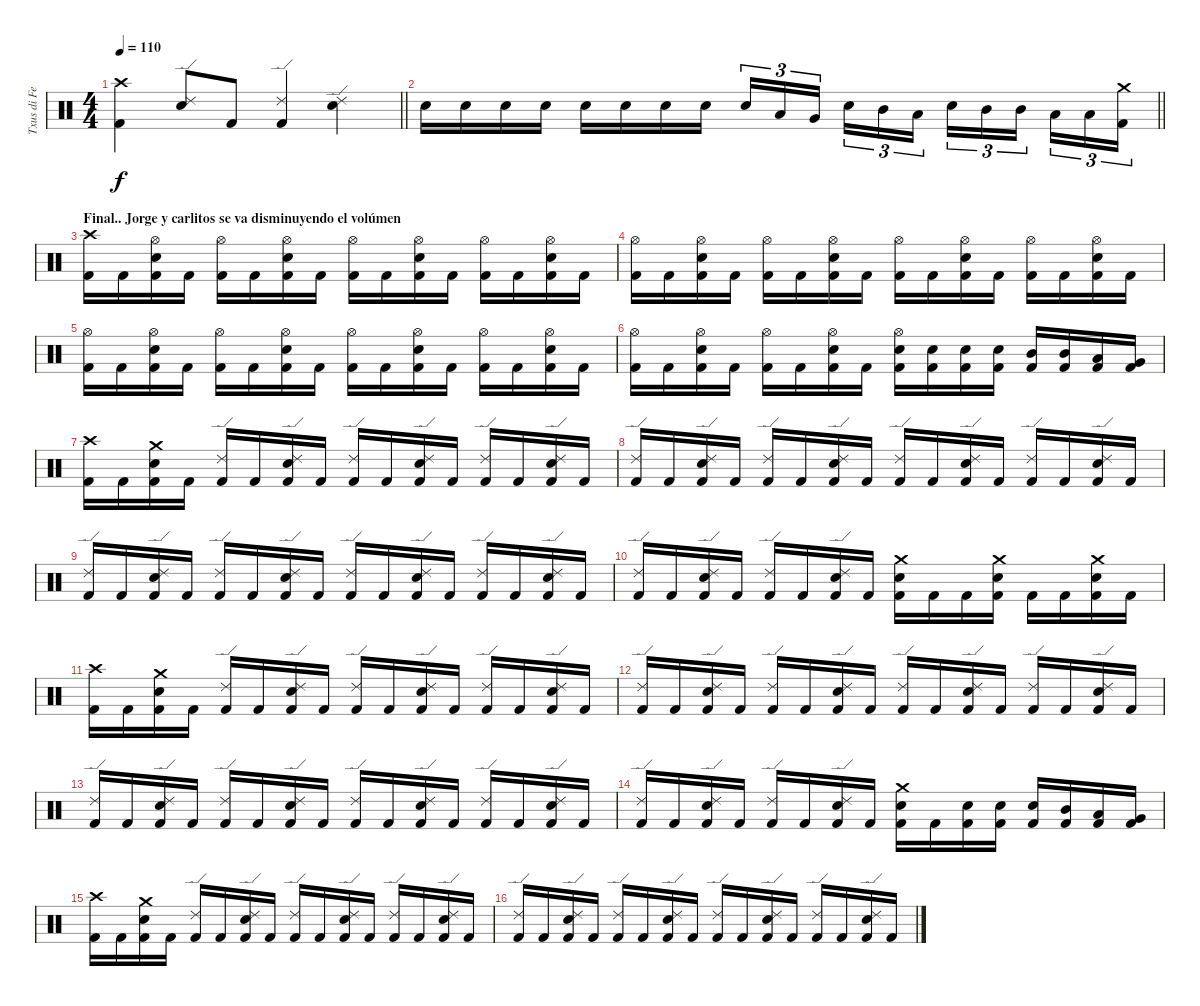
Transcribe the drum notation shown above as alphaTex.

\track ("Txus di Fellatio" "Txus di Fe") {instrument percussion}
\staff {score}
\articulation defaults
\ts (4 4)
\tempo 110
\clef neutral
\barLineRight lightlight
\ks c
("Kick (hit) 2" "Crash high (hit)").4{dy f} ("Ride (edge) 2" "Electric Snare (hit)").8 "Kick (hit) 2".8 ("Kick (hit) 2" "Ride (edge) 2").4 ("Ride (edge) 2" "Electric Snare (hit)").4 |
\barLineRight lightlight "Electric Snare (hit)".16 "Electric Snare (hit)".16 "Electric Snare (hit)".16 "Electric Snare (hit)".16 "Electric Snare (hit)".16 "Electric Snare (hit)".16 "Electric Snare (hit)".16 "Electric Snare (hit)".16 "Electric Snare (hit)".16{tu (3 2)} "Low Tom (hit)".16{tu (3 2)} "Very Low Tom (hit)".16{tu (3 2) beam splitsecondary} "Electric Snare (hit)".16{tu (3 2)} "Mid Tom (hit)".16{tu (3 2)} "Low Tom (hit)".16{tu (3 2)} "Electric Snare (hit)".16{tu (3 2)} "Mid Tom (hit)".16{tu (3 2)} "Mid Tom (hit)".16{tu (3 2) beam splitsecondary} "Low Tom (hit)".16{tu (3 2)} "Low Tom (hit)".16{tu (3 2)}
("Kick (hit) 2" "Crash medium (hit)").16{tu (3 2)} |
\section ("" "Final.. Jorge y carlitos se va disminuyendo el volúmen")
("Kick (hit) 2" "Crash high (hit)").16 "Kick (hit) 2".16 ("Kick (hit) 2" "Hi-Hat (open)" "Electric Snare (hit)").16 "Kick (hit) 2".16 ("Kick (hit) 2" "Hi-Hat (open)").16 "Kick (hit) 2".16 ("Kick (hit) 2" "Hi-Hat (open)" "Electric Snare (hit)").16 "Kick (hit) 2".16 ("Kick (hit) 2" "Hi-Hat (open)").16 "Kick (hit) 2".16 ("Kick (hit) 2" "Hi-Hat (open)" "Electric Snare (hit)").16 "Kick (hit) 2".16 ("Kick (hit) 2" "Hi-Hat (open)").16 "Kick (hit) 2".16 ("Kick (hit) 2" "Hi-Hat (open)" "Electric Snare (hit)").16 "Kick (hit) 2".16 |
("Kick (hit) 2" "Hi-Hat (open)").16 "Kick (hit) 2".16 ("Kick (hit) 2" "Hi-Hat (open)" "Electric Snare (hit)").16 "Kick (hit) 2".16 ("Kick (hit) 2" "Hi-Hat (open)").16 "Kick (hit) 2".16 ("Kick (hit) 2" "Hi-Hat (open)" "Electric Snare (hit)").16 "Kick (hit) 2".16 ("Kick (hit) 2" "Hi-Hat (open)").16 "Kick (hit) 2".16 ("Kick (hit) 2" "Hi-Hat (open)" "Electric Snare (hit)").16 "Kick (hit) 2".16 ("Kick (hit) 2" "Hi-Hat (open)").16 "Kick (hit) 2".16 ("Kick (hit) 2" "Hi-Hat (open)" "Electric Snare (hit)").16 "Kick (hit) 2".16 |
("Kick (hit) 2" "Hi-Hat (open)").16 "Kick (hit) 2".16 ("Kick (hit) 2" "Hi-Hat (open)" "Electric Snare (hit)").16 "Kick (hit) 2".16 ("Kick (hit) 2" "Hi-Hat (open)").16 "Kick (hit) 2".16 ("Kick (hit) 2" "Hi-Hat (open)" "Electric Snare (hit)").16 "Kick (hit) 2".16 ("Kick (hit) 2" "Hi-Hat (open)").16 "Kick (hit) 2".16 ("Kick (hit) 2" "Hi-Hat (open)" "Electric Snare (hit)").16 "Kick (hit) 2".16 ("Kick (hit) 2" "Hi-Hat (open)").16 "Kick (hit) 2".16 ("Kick (hit) 2" "Hi-Hat (open)" "Electric Snare (hit)").16 "Kick (hit) 2".16 |
("Kick (hit) 2" "Hi-Hat (open)").16 "Kick (hit) 2".16 ("Kick (hit) 2" "Hi-Hat (open)" "Electric Snare (hit)").16 "Kick (hit) 2".16 ("Kick (hit) 2" "Hi-Hat (open)").16 "Kick (hit) 2".16 ("Kick (hit) 2" "Hi-Hat (open)" "Electric Snare (hit)").16 "Kick (hit) 2".16 ("Kick (hit) 2" "Hi-Hat (open)" "Electric Snare (hit)").16 ("Kick (hit) 2" "Electric Snare (hit)").16 ("Kick (hit) 2" "Electric Snare (hit)").16 ("Kick (hit) 2" "Electric Snare (hit)").16 ("Kick (hit) 2" "Mid Tom (hit)").16 ("Kick (hit) 2" "Mid Tom (hit)").16 ("Kick (hit) 2" "Low Tom (hit)").16 ("Kick (hit) 2" "Very Low Tom (hit)").16 |
("Kick (hit) 2" "Crash high (hit)").16 "Kick (hit) 2".16 ("Kick (hit) 2" "Crash medium (hit)" "Electric Snare (hit)").16 "Kick (hit) 2".16 ("Kick (hit) 2" "Ride (edge) 2").16 "Kick (hit) 2".16 ("Kick (hit) 2" "Ride (edge) 2" "Electric Snare (hit)").16 "Kick (hit) 2".16 ("Kick (hit) 2" "Ride (edge) 2").16 "Kick (hit) 2".16 ("Kick (hit) 2" "Ride (edge) 2" "Electric Snare (hit)").16 "Kick (hit) 2".16 ("Kick (hit) 2" "Ride (edge) 2").16 "Kick (hit) 2".16 ("Kick (hit) 2" "Ride (edge) 2" "Electric Snare (hit)").16 "Kick (hit) 2".16 |
("Kick (hit) 2" "Ride (edge) 2").16 "Kick (hit) 2".16 ("Kick (hit) 2" "Ride (edge) 2" "Electric Snare (hit)").16 "Kick (hit) 2".16 ("Kick (hit) 2" "Ride (edge) 2").16 "Kick (hit) 2".16 ("Kick (hit) 2" "Ride (edge) 2" "Electric Snare (hit)").16 "Kick (hit) 2".16 ("Kick (hit) 2" "Ride (edge) 2").16 "Kick (hit) 2".16 ("Kick (hit) 2" "Ride (edge) 2" "Electric Snare (hit)").16 "Kick (hit) 2".16 ("Kick (hit) 2" "Ride (edge) 2").16 "Kick (hit) 2".16 ("Kick (hit) 2" "Ride (edge) 2" "Electric Snare (hit)").16 "Kick (hit) 2".16 |
("Kick (hit) 2" "Ride (edge) 2").16 "Kick (hit) 2".16 ("Kick (hit) 2" "Ride (edge) 2" "Electric Snare (hit)").16 "Kick (hit) 2".16 ("Kick (hit) 2" "Ride (edge) 2").16 "Kick (hit) 2".16 ("Kick (hit) 2" "Ride (edge) 2" "Electric Snare (hit)").16 "Kick (hit) 2".16 ("Kick (hit) 2" "Ride (edge) 2").16 "Kick (hit) 2".16 ("Kick (hit) 2" "Ride (edge) 2" "Electric Snare (hit)").16 "Kick (hit) 2".16 ("Kick (hit) 2" "Ride (edge) 2").16 "Kick (hit) 2".16 ("Kick (hit) 2" "Ride (edge) 2" "Electric Snare (hit)").16 "Kick (hit) 2".16 |
("Kick (hit) 2" "Ride (edge) 2").16 "Kick (hit) 2".16 ("Kick (hit) 2" "Ride (edge) 2" "Electric Snare (hit)").16 "Kick (hit) 2".16 ("Kick (hit) 2" "Ride (edge) 2").16 "Kick (hit) 2".16 ("Kick (hit) 2" "Ride (edge) 2" "Electric Snare (hit)").16 "Kick (hit) 2".16 ("Kick (hit) 2" "Crash medium (hit)" "Electric Snare (hit)").16 "Kick (hit) 2".16 "Kick (hit) 2".16 ("Kick (hit) 2" "Crash medium (hit)" "Electric Snare (hit)").16 "Kick (hit) 2".16 "Kick (hit) 2".16 ("Kick (hit) 2" "Crash medium (hit)" "Electric Snare (hit)").16 "Kick (hit) 2".16 |
("Kick (hit) 2" "Crash high (hit)").16 "Kick (hit) 2".16 ("Kick (hit) 2" "Crash medium (hit)" "Electric Snare (hit)").16 "Kick (hit) 2".16 ("Kick (hit) 2" "Ride (edge) 2").16 "Kick (hit) 2".16 ("Kick (hit) 2" "Ride (edge) 2" "Electric Snare (hit)").16 "Kick (hit) 2".16 ("Kick (hit) 2" "Ride (edge) 2").16 "Kick (hit) 2".16 ("Kick (hit) 2" "Ride (edge) 2" "Electric Snare (hit)").16 "Kick (hit) 2".16 ("Kick (hit) 2" "Ride (edge) 2").16 "Kick (hit) 2".16 ("Kick (hit) 2" "Ride (edge) 2" "Electric Snare (hit)").16 "Kick (hit) 2".16 |
("Kick (hit) 2" "Ride (edge) 2").16 "Kick (hit) 2".16 ("Kick (hit) 2" "Ride (edge) 2" "Electric Snare (hit)").16 "Kick (hit) 2".16 ("Kick (hit) 2" "Ride (edge) 2").16 "Kick (hit) 2".16 ("Kick (hit) 2" "Ride (edge) 2" "Electric Snare (hit)").16 "Kick (hit) 2".16 ("Kick (hit) 2" "Ride (edge) 2").16 "Kick (hit) 2".16 ("Kick (hit) 2" "Ride (edge) 2" "Electric Snare (hit)").16 "Kick (hit) 2".16 ("Kick (hit) 2" "Ride (edge) 2").16 "Kick (hit) 2".16 ("Kick (hit) 2" "Ride (edge) 2" "Electric Snare (hit)").16 "Kick (hit) 2".16 |
("Kick (hit) 2" "Ride (edge) 2").16 "Kick (hit) 2".16 ("Kick (hit) 2" "Ride (edge) 2" "Electric Snare (hit)").16 "Kick (hit) 2".16 ("Kick (hit) 2" "Ride (edge) 2").16 "Kick (hit) 2".16 ("Kick (hit) 2" "Ride (edge) 2" "Electric Snare (hit)").16 "Kick (hit) 2".16 ("Kick (hit) 2" "Ride (edge) 2").16 "Kick (hit) 2".16 ("Kick (hit) 2" "Ride (edge) 2" "Electric Snare (hit)").16 "Kick (hit) 2".16 ("Kick (hit) 2" "Ride (edge) 2").16 "Kick (hit) 2".16 ("Kick (hit) 2" "Ride (edge) 2" "Electric Snare (hit)").16 "Kick (hit) 2".16 |
("Kick (hit) 2" "Ride (edge) 2").16 "Kick (hit) 2".16 ("Kick (hit) 2" "Ride (edge) 2" "Electric Snare (hit)").16 "Kick (hit) 2".16 ("Kick (hit) 2" "Ride (edge) 2").16 "Kick (hit) 2".16 ("Kick (hit) 2" "Ride (edge) 2" "Electric Snare (hit)").16 "Kick (hit) 2".16 ("Kick (hit) 2" "Crash medium (hit)" "Electric Snare (hit)").16 "Kick (hit) 2".16 ("Kick (hit) 2" "Electric Snare (hit)").16 ("Kick (hit) 2" "Electric Snare (hit)").16 ("Kick (hit) 2" "Electric Snare (hit)").16 ("Kick (hit) 2" "Mid Tom (hit)").16 ("Kick (hit) 2" "Low Tom (hit)").16 ("Kick (hit) 2" "Very Low Tom (hit)").16 |
("Kick (hit) 2" "Crash high (hit)").16 "Kick (hit) 2".16 ("Kick (hit) 2" "Crash medium (hit)" "Electric Snare (hit)").16 "Kick (hit) 2".16 ("Kick (hit) 2" "Ride (edge) 2").16 "Kick (hit) 2".16 ("Kick (hit) 2" "Ride (edge) 2" "Electric Snare (hit)").16 "Kick (hit) 2".16 ("Kick (hit) 2" "Ride (edge) 2").16 "Kick (hit) 2".16 ("Kick (hit) 2" "Ride (edge) 2" "Electric Snare (hit)").16 "Kick (hit) 2".16 ("Kick (hit) 2" "Ride (edge) 2").16 "Kick (hit) 2".16 ("Kick (hit) 2" "Ride (edge) 2" "Electric Snare (hit)").16 "Kick (hit) 2".16 |
("Kick (hit) 2" "Ride (edge) 2").16 "Kick (hit) 2".16 ("Kick (hit) 2" "Ride (edge) 2" "Electric Snare (hit)").16 "Kick (hit) 2".16 ("Kick (hit) 2" "Ride (edge) 2").16 "Kick (hit) 2".16 ("Kick (hit) 2" "Ride (edge) 2" "Electric Snare (hit)").16 "Kick (hit) 2".16 ("Kick (hit) 2" "Ride (edge) 2").16 "Kick (hit) 2".16 ("Kick (hit) 2" "Ride (edge) 2" "Electric Snare (hit)").16 "Kick (hit) 2".16 ("Kick (hit) 2" "Ride (edge) 2").16 "Kick (hit) 2".16 ("Kick (hit) 2" "Ride (edge) 2" "Electric Snare (hit)").16 "Kick (hit) 2".16
